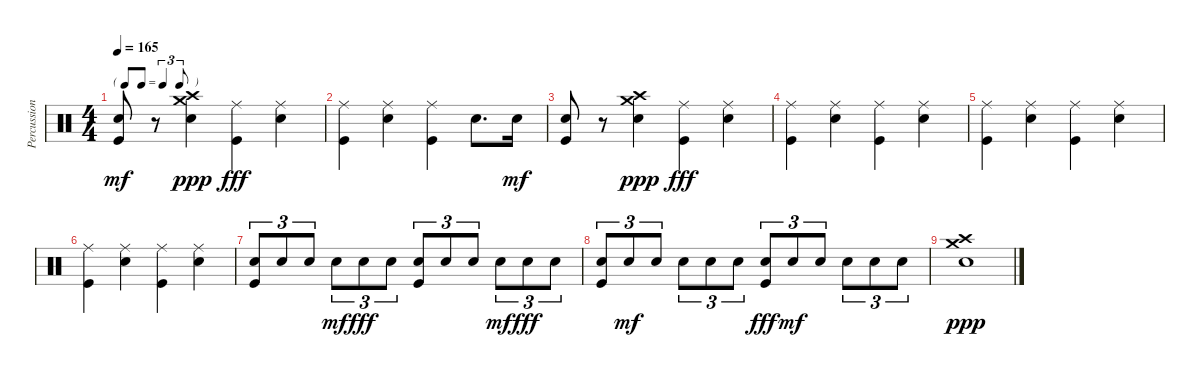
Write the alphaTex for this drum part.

\track ("Percussions" "Percussion") {instrument percussion}
\staff {score}
\articulation defaults
\ts (4 4)
\tf triplet8th
\tempo 165
\clef neutral
\ks c
("Kick (hit)" "Electric Snare (hit)").8{dy mf} r.8 ("Crash medium (hit)" "Crash high (hit)" "Electric Snare (hit)").4{dy ppp} ("Kick (hit)" "Ride (middle)").4{dy fff} ("Electric Snare (hit)" "Ride (middle)").4 |
("Kick (hit)" "Ride (middle)").4 ("Electric Snare (hit)" "Ride (middle)").4 ("Kick (hit)" "Ride (middle)").4 "Electric Snare (hit)".8{d} "Electric Snare (hit)".16{dy mf} |
("Kick (hit)" "Electric Snare (hit)").8 r.8 ("Crash medium (hit)" "Crash high (hit)" "Electric Snare (hit)").4{dy ppp} ("Kick (hit)" "Ride (middle)").4{dy fff} ("Electric Snare (hit)" "Ride (middle)").4 |
("Kick (hit)" "Ride (middle)").4 ("Electric Snare (hit)" "Ride (middle)").4 ("Kick (hit)" "Ride (middle)").4 ("Electric Snare (hit)" "Ride (middle)").4 |
("Kick (hit)" "Ride (middle)").4 ("Electric Snare (hit)" "Ride (middle)").4 ("Kick (hit)" "Ride (middle)").4 ("Electric Snare (hit)" "Ride (middle)").4 |
("Kick (hit)" "Ride (middle)").4 ("Electric Snare (hit)" "Ride (middle)").4 ("Kick (hit)" "Ride (middle)").4 ("Electric Snare (hit)" "Ride (middle)").4 |
("Electric Snare (hit)" "Kick (hit)").8{tu (3 2)} "Electric Snare (hit)".8{tu (3 2)} "Electric Snare (hit)".8{tu (3 2)} "Electric Snare (hit)".8{tu (3 2) dy mf} "Electric Snare (hit)".8{tu (3 2) dy fff} "Electric Snare (hit)".8{tu (3 2)} ("Electric Snare (hit)" "Kick (hit)").8{tu (3 2)} "Electric Snare (hit)".8{tu (3 2)} "Electric Snare (hit)".8{tu (3 2)} "Electric Snare (hit)".8{tu (3 2) dy mf} "Electric Snare (hit)".8{tu (3 2) dy fff} "Electric Snare (hit)".8{tu (3 2)} |
("Electric Snare (hit)" "Kick (hit)").8{tu (3 2)} "Electric Snare (hit)".8{tu (3 2) dy mf} "Electric Snare (hit)".8{tu (3 2)} "Electric Snare (hit)".8{tu (3 2)} "Electric Snare (hit)".8{tu (3 2)} "Electric Snare (hit)".8{tu (3 2)} ("Electric Snare (hit)" "Kick (hit)").8{tu (3 2) dy fff} "Electric Snare (hit)".8{tu (3 2) dy mf} "Electric Snare (hit)".8{tu (3 2)} "Electric Snare (hit)".8{tu (3 2)} "Electric Snare (hit)".8{tu (3 2)} "Electric Snare (hit)".8{tu (3 2)} |
("Crash medium (hit)" "Crash high (hit)" "Electric Snare (hit)").1{dy ppp}
